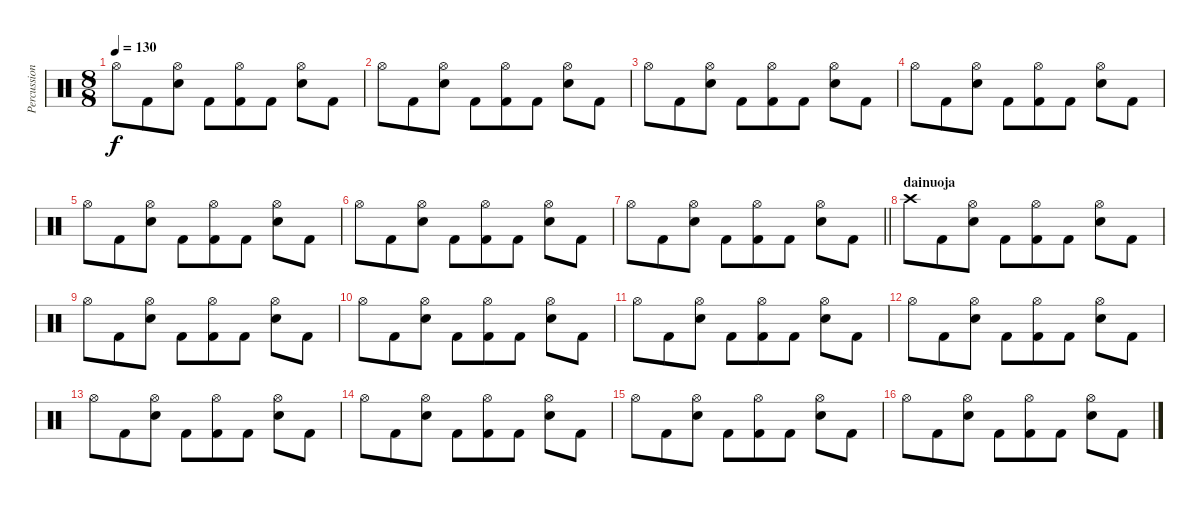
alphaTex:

\track ("Percussion" "Percussion") {instrument percussion}
\staff {score}
\articulation defaults
\ts (8 8)
\tempo 130
\clef neutral
\ks c "Hi-Hat (open)".8{dy f} "Kick (hit) 2".8
("Hi-Hat (open)" "Snare (hit) 2").8 "Kick (hit) 2".8 ("Hi-Hat (open)" "Kick (hit) 2").8 "Kick (hit) 2".8 ("Hi-Hat (open)" "Snare (hit) 2").8 "Kick (hit) 2".8 |
"Hi-Hat (open)".8 "Kick (hit) 2".8 ("Hi-Hat (open)" "Snare (hit) 2").8 "Kick (hit) 2".8 ("Hi-Hat (open)" "Kick (hit) 2").8 "Kick (hit) 2".8 ("Hi-Hat (open)" "Snare (hit) 2").8 "Kick (hit) 2".8 |
"Hi-Hat (open)".8 "Kick (hit) 2".8 ("Hi-Hat (open)" "Snare (hit) 2").8 "Kick (hit) 2".8 ("Hi-Hat (open)" "Kick (hit) 2").8 "Kick (hit) 2".8 ("Hi-Hat (open)" "Snare (hit) 2").8 "Kick (hit) 2".8 |
"Hi-Hat (open)".8 "Kick (hit) 2".8 ("Hi-Hat (open)" "Snare (hit) 2").8 "Kick (hit) 2".8 ("Hi-Hat (open)" "Kick (hit) 2").8 "Kick (hit) 2".8 ("Hi-Hat (open)" "Snare (hit) 2").8 "Kick (hit) 2".8 |
"Hi-Hat (open)".8 "Kick (hit) 2".8 ("Hi-Hat (open)" "Snare (hit) 2").8 "Kick (hit) 2".8 ("Hi-Hat (open)" "Kick (hit) 2").8 "Kick (hit) 2".8 ("Hi-Hat (open)" "Snare (hit) 2").8 "Kick (hit) 2".8 |
"Hi-Hat (open)".8 "Kick (hit) 2".8 ("Hi-Hat (open)" "Snare (hit) 2").8 "Kick (hit) 2".8 ("Hi-Hat (open)" "Kick (hit) 2").8 "Kick (hit) 2".8 ("Hi-Hat (open)" "Snare (hit) 2").8 "Kick (hit) 2".8 |
\barLineRight lightlight "Hi-Hat (open)".8 "Kick (hit) 2".8
("Hi-Hat (open)" "Snare (hit) 2").8 "Kick (hit) 2".8 ("Hi-Hat (open)" "Kick (hit) 2").8 "Kick (hit) 2".8 ("Hi-Hat (open)" "Snare (hit) 2").8 "Kick (hit) 2".8 |
\section ("" "dainuoja")
"Crash high (hit)".8 "Kick (hit) 2".8 ("Hi-Hat (open)" "Snare (hit) 2").8 "Kick (hit) 2".8 ("Hi-Hat (open)" "Kick (hit) 2").8 "Kick (hit) 2".8 ("Hi-Hat (open)" "Snare (hit) 2").8 "Kick (hit) 2".8 |
"Hi-Hat (open)".8 "Kick (hit) 2".8 ("Hi-Hat (open)" "Snare (hit) 2").8 "Kick (hit) 2".8 ("Hi-Hat (open)" "Kick (hit) 2").8 "Kick (hit) 2".8 ("Hi-Hat (open)" "Snare (hit) 2").8 "Kick (hit) 2".8 |
"Hi-Hat (open)".8 "Kick (hit) 2".8 ("Hi-Hat (open)" "Snare (hit) 2").8 "Kick (hit) 2".8 ("Hi-Hat (open)" "Kick (hit) 2").8 "Kick (hit) 2".8 ("Hi-Hat (open)" "Snare (hit) 2").8 "Kick (hit) 2".8 |
"Hi-Hat (open)".8 "Kick (hit) 2".8 ("Hi-Hat (open)" "Snare (hit) 2").8 "Kick (hit) 2".8 ("Hi-Hat (open)" "Kick (hit) 2").8 "Kick (hit) 2".8 ("Hi-Hat (open)" "Snare (hit) 2").8 "Kick (hit) 2".8 |
"Hi-Hat (open)".8 "Kick (hit) 2".8 ("Hi-Hat (open)" "Snare (hit) 2").8 "Kick (hit) 2".8 ("Hi-Hat (open)" "Kick (hit) 2").8 "Kick (hit) 2".8 ("Hi-Hat (open)" "Snare (hit) 2").8 "Kick (hit) 2".8 |
"Hi-Hat (open)".8 "Kick (hit) 2".8 ("Hi-Hat (open)" "Snare (hit) 2").8 "Kick (hit) 2".8 ("Hi-Hat (open)" "Kick (hit) 2").8 "Kick (hit) 2".8 ("Hi-Hat (open)" "Snare (hit) 2").8 "Kick (hit) 2".8 |
"Hi-Hat (open)".8 "Kick (hit) 2".8 ("Hi-Hat (open)" "Snare (hit) 2").8 "Kick (hit) 2".8 ("Hi-Hat (open)" "Kick (hit) 2").8 "Kick (hit) 2".8 ("Hi-Hat (open)" "Snare (hit) 2").8 "Kick (hit) 2".8 |
"Hi-Hat (open)".8 "Kick (hit) 2".8 ("Hi-Hat (open)" "Snare (hit) 2").8 "Kick (hit) 2".8 ("Hi-Hat (open)" "Kick (hit) 2").8 "Kick (hit) 2".8 ("Hi-Hat (open)" "Snare (hit) 2").8 "Kick (hit) 2".8 |
"Hi-Hat (open)".8 "Kick (hit) 2".8 ("Hi-Hat (open)" "Snare (hit) 2").8 "Kick (hit) 2".8 ("Hi-Hat (open)" "Kick (hit) 2").8 "Kick (hit) 2".8 ("Hi-Hat (open)" "Snare (hit) 2").8 "Kick (hit) 2".8
